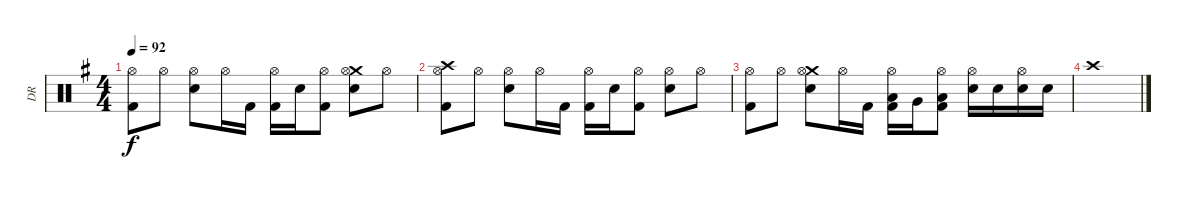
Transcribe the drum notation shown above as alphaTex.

\track ("DR" "DR") {instrument percussion}
\staff {score}
\articulation defaults
\ts (4 4)
\tempo 92
\clef neutral
\ks g
("Hi-Hat (open)" "Kick (hit) 2").8{dy f} "Hi-Hat (open)".8 ("Hi-Hat (open)" "Electric Snare (hit)").8 "Hi-Hat (open)".16 "Kick (hit) 2".16 ("Hi-Hat (open)" "Kick (hit) 2").16 "Electric Snare (hit)".16 ("Hi-Hat (open)" "Kick (hit) 2").8 ("Crash medium (hit)" "Hi-Hat (open)" "Electric Snare (hit)").8 "Hi-Hat (open)".8 |
("Crash high (hit)" "Hi-Hat (open)" "Kick (hit) 2").8 "Hi-Hat (open)".8 ("Hi-Hat (open)" "Electric Snare (hit)").8 "Hi-Hat (open)".16 "Kick (hit) 2".16 ("Hi-Hat (open)" "Kick (hit) 2").16 "Electric Snare (hit)".16 ("Hi-Hat (open)" "Kick (hit) 2").8 ("Hi-Hat (open)" "Electric Snare (hit)").8 "Hi-Hat (open)".8 |
("Hi-Hat (open)" "Kick (hit) 2").8 "Hi-Hat (open)".8 ("Crash medium (hit)" "Hi-Hat (open)" "Electric Snare (hit)").8 "Hi-Hat (open)".16 "Kick (hit) 2".16 ("Hi-Hat (open)" "Low Tom (hit)" "Kick (hit) 2").16 "Very Low Tom (hit)".16 ("Hi-Hat (open)" "Low Floor Tom (hit)" "Kick (hit) 2").8 ("Hi-Hat (open)" "Electric Snare (hit)").16 "Electric Snare (hit)".16 ("Hi-Hat (open)" "Electric Snare (hit)").16 "Electric Snare (hit)".16 |
"Crash high (hit)".1
